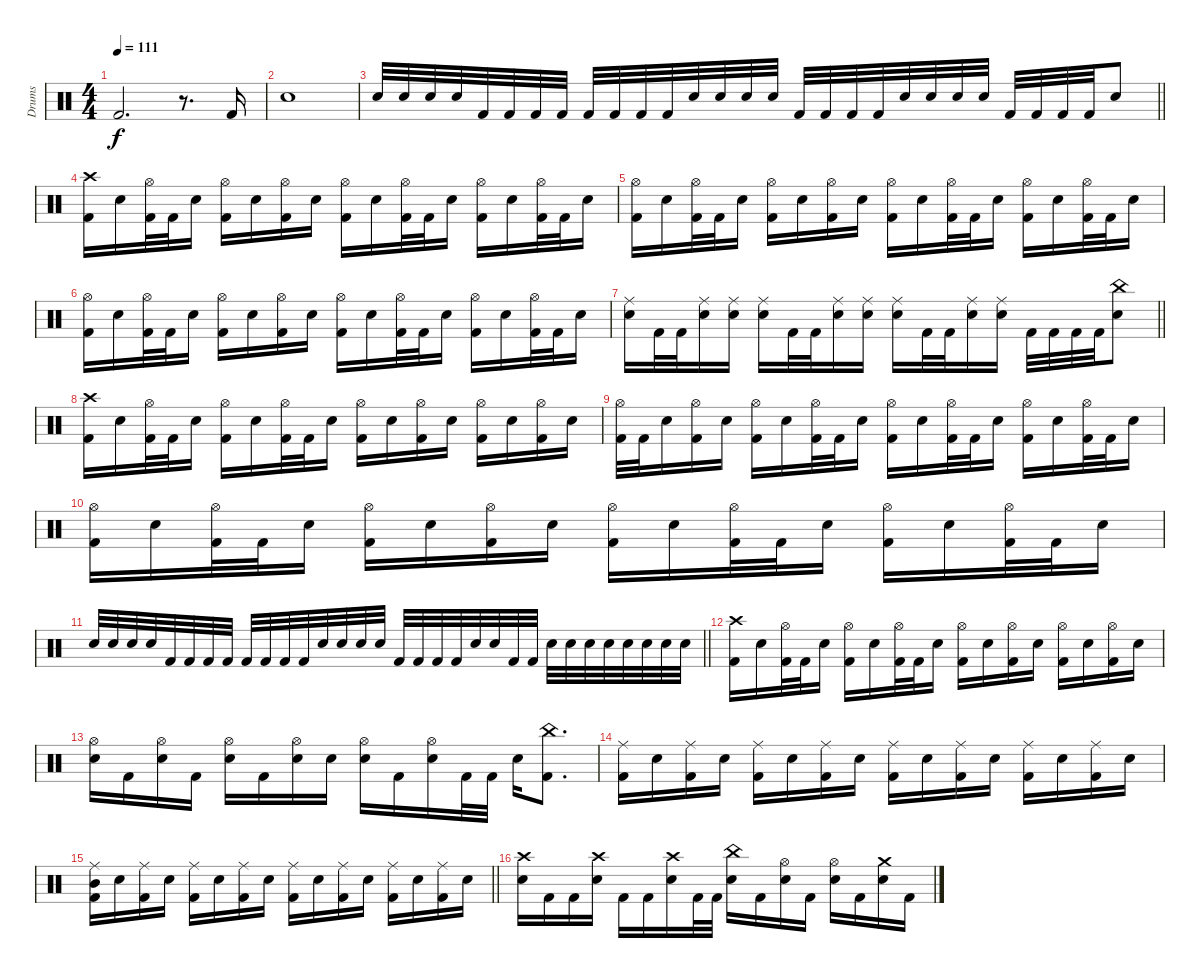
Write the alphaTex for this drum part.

\track ("Drums" "Drums") {instrument percussion}
\staff
\articulation defaults
\ts (4 4)
\tempo 111
\clef neutral
\ks c "Kick (hit) 2".2{d dy f}
r.8{d} "Kick (hit) 2".16 |
"Electric Snare (hit)".1 |
\barLineRight lightlight "Electric Snare (hit)".32 "Electric Snare (hit)".32 "Electric Snare (hit)".32 "Electric Snare (hit)".32 "Kick (hit) 2".32 "Kick (hit) 2".32 "Kick (hit) 2".32 "Kick (hit) 2".32 "Kick (hit) 2".32 "Kick (hit) 2".32 "Kick (hit) 2".32 "Kick (hit) 2".32 "Electric Snare (hit)".32 "Electric Snare (hit)".32 "Electric Snare (hit)".32 "Electric Snare (hit)".32 "Kick (hit) 2".32 "Kick (hit) 2".32 "Kick (hit) 2".32 "Kick (hit) 2".32 "Electric Snare (hit)".32 "Electric Snare (hit)".32 "Electric Snare (hit)".32 "Electric Snare (hit)".32 "Kick (hit) 2".32 "Kick (hit) 2".32 "Kick (hit) 2".32 "Kick (hit) 2".32 "Electric Snare (hit)".8
|
("Crash high (hit)" "Kick (hit) 2").16 "Electric Snare (hit)".16 ("Hi-Hat (open)" "Kick (hit) 2").32 "Kick (hit) 2".32 "Electric Snare (hit)".16 ("Hi-Hat (open)" "Kick (hit) 2").16 "Electric Snare (hit)".16 ("Hi-Hat (open)" "Kick (hit) 2").16 "Electric Snare (hit)".16 ("Hi-Hat (open)" "Kick (hit) 2").16 "Electric Snare (hit)".16 ("Hi-Hat (open)" "Kick (hit) 2").32 "Kick (hit) 2".32 "Electric Snare (hit)".16 ("Hi-Hat (open)" "Kick (hit) 2").16 "Electric Snare (hit)".16 ("Hi-Hat (open)" "Kick (hit) 2").32 "Kick (hit) 2".32 "Electric Snare (hit)".16 |
("Hi-Hat (open)" "Kick (hit) 2").16 "Electric Snare (hit)".16 ("Hi-Hat (open)" "Kick (hit) 2").32 "Kick (hit) 2".32 "Electric Snare (hit)".16 ("Hi-Hat (open)" "Kick (hit) 2").16 "Electric Snare (hit)".16 ("Hi-Hat (open)" "Kick (hit) 2").16 "Electric Snare (hit)".16 ("Hi-Hat (open)" "Kick (hit) 2").16 "Electric Snare (hit)".16 ("Hi-Hat (open)" "Kick (hit) 2").32 "Kick (hit) 2".32 "Electric Snare (hit)".16 ("Hi-Hat (open)" "Kick (hit) 2").16 "Electric Snare (hit)".16 ("Hi-Hat (open)" "Kick (hit) 2").32 "Kick (hit) 2".32 "Electric Snare (hit)".16 |
("Hi-Hat (open)" "Kick (hit) 2").16 "Electric Snare (hit)".16 ("Hi-Hat (open)" "Kick (hit) 2").32 "Kick (hit) 2".32 "Electric Snare (hit)".16 ("Hi-Hat (open)" "Kick (hit) 2").16 "Electric Snare (hit)".16 ("Hi-Hat (open)" "Kick (hit) 2").16 "Electric Snare (hit)".16 ("Hi-Hat (open)" "Kick (hit) 2").16 "Electric Snare (hit)".16 ("Hi-Hat (open)" "Kick (hit) 2").32 "Kick (hit) 2".32 "Electric Snare (hit)".16 ("Hi-Hat (open)" "Kick (hit) 2").16 "Electric Snare (hit)".16 ("Hi-Hat (open)" "Kick (hit) 2").32 "Kick (hit) 2".32 "Electric Snare (hit)".16 |
\barLineRight lightlight
("Ride (middle)" "Electric Snare (hit)").16 "Kick (hit) 2".32 "Kick (hit) 2".32 ("Ride (middle)" "Electric Snare (hit)").16 ("Ride (middle)" "Electric Snare (hit)").16 ("Ride (middle)" "Electric Snare (hit)").16 "Kick (hit) 2".32 "Kick (hit) 2".32 ("Ride (middle)" "Electric Snare (hit)").16 ("Ride (middle)" "Electric Snare (hit)").16 ("Ride (middle)" "Electric Snare (hit)").16 "Kick (hit) 2".32 "Kick (hit) 2".32 ("Ride (middle)" "Electric Snare (hit)").16 ("Ride (middle)" "Electric Snare (hit)").16 "Kick (hit) 2".32 "Kick (hit) 2".32 "Kick (hit) 2".32 "Kick (hit) 2".32 ("China (hit)" "Electric Snare (hit)").8 |
("Crash high (hit)" "Kick (hit) 2").16 "Electric Snare (hit)".16 ("Hi-Hat (open)" "Kick (hit) 2").32 "Kick (hit) 2".32 "Electric Snare (hit)".16 ("Hi-Hat (open)" "Kick (hit) 2").16 "Electric Snare (hit)".16 ("Hi-Hat (open)" "Kick (hit) 2").32 "Kick (hit) 2".32 "Electric Snare (hit)".16 ("Hi-Hat (open)" "Kick (hit) 2").16 "Electric Snare (hit)".16 ("Hi-Hat (open)" "Kick (hit) 2").16 "Electric Snare (hit)".16 ("Hi-Hat (open)" "Kick (hit) 2").16 "Electric Snare (hit)".16 ("Hi-Hat (open)" "Kick (hit) 2").16 "Electric Snare (hit)".16 |
("Hi-Hat (open)" "Kick (hit) 2").32 "Kick (hit) 2".32 "Electric Snare (hit)".16 ("Hi-Hat (open)" "Kick (hit) 2").16 "Electric Snare (hit)".16 ("Hi-Hat (open)" "Kick (hit) 2").16 "Electric Snare (hit)".16 ("Hi-Hat (open)" "Kick (hit) 2").32 "Kick (hit) 2".32 "Electric Snare (hit)".16 ("Hi-Hat (open)" "Kick (hit) 2").16 "Electric Snare (hit)".16 ("Hi-Hat (open)" "Kick (hit) 2").32 "Kick (hit) 2".32 "Electric Snare (hit)".16 ("Hi-Hat (open)" "Kick (hit) 2").16 "Electric Snare (hit)".16 ("Hi-Hat (open)" "Kick (hit) 2").32 "Kick (hit) 2".32 "Electric Snare (hit)".16 |
("Hi-Hat (open)" "Kick (hit) 2").16 "Electric Snare (hit)".16 ("Hi-Hat (open)" "Kick (hit) 2").32 "Kick (hit) 2".32 "Electric Snare (hit)".16 ("Hi-Hat (open)" "Kick (hit) 2").16 "Electric Snare (hit)".16 ("Hi-Hat (open)" "Kick (hit) 2").16 "Electric Snare (hit)".16 ("Hi-Hat (open)" "Kick (hit) 2").16 "Electric Snare (hit)".16 ("Hi-Hat (open)" "Kick (hit) 2").32 "Kick (hit) 2".32 "Electric Snare (hit)".16 ("Hi-Hat (open)" "Kick (hit) 2").16 "Electric Snare (hit)".16 ("Hi-Hat (open)" "Kick (hit) 2").32 "Kick (hit) 2".32 "Electric Snare (hit)".16 |
\barLineRight lightlight "Electric Snare (hit)".32 "Electric Snare (hit)".32 "Electric Snare (hit)".32 "Electric Snare (hit)".32 "Kick (hit) 2".32 "Kick (hit) 2".32 "Kick (hit) 2".32 "Kick (hit) 2".32 "Kick (hit) 2".32 "Kick (hit) 2".32 "Kick (hit) 2".32 "Kick (hit) 2".32 "Electric Snare (hit)".32 "Electric Snare (hit)".32 "Electric Snare (hit)".32 "Electric Snare (hit)".32 "Kick (hit) 2".32 "Kick (hit) 2".32 "Kick (hit) 2".32 "Kick (hit) 2".32 "Electric Snare (hit)".32 "Electric Snare (hit)".32 "Kick (hit) 2".32 "Kick (hit) 2".32 "Electric Snare (hit)".32 "Electric Snare (hit)".32 "Electric Snare (hit)".32 "Electric Snare (hit)".32 "Electric Snare (hit)".32 "Electric Snare (hit)".32 "Electric Snare (hit)".32 "Electric Snare (hit)".32
|
\section ("" "")
("Crash high (hit)" "Kick (hit) 2").16 "Electric Snare (hit)".16 ("Hi-Hat (open)" "Kick (hit) 2").32 "Kick (hit) 2".32 "Electric Snare (hit)".16 ("Hi-Hat (open)" "Kick (hit) 2").16 "Electric Snare (hit)".16 ("Hi-Hat (open)" "Kick (hit) 2").32 "Kick (hit) 2".32 "Electric Snare (hit)".16 ("Hi-Hat (open)" "Kick (hit) 2").16 "Electric Snare (hit)".16 ("Hi-Hat (open)" "Kick (hit) 2").16 "Electric Snare (hit)".16 ("Hi-Hat (open)" "Kick (hit) 2").16 "Electric Snare (hit)".16 ("Hi-Hat (open)" "Kick (hit) 2").16 "Electric Snare (hit)".16 |
("Hi-Hat (open)" "Electric Snare (hit)").16 "Kick (hit) 2".16 ("Hi-Hat (open)" "Electric Snare (hit)").16 "Kick (hit) 2".16 ("Hi-Hat (open)" "Electric Snare (hit)").16 "Kick (hit) 2".16 ("Hi-Hat (open)" "Electric Snare (hit)").16 "Electric Snare (hit)".16 ("Hi-Hat (open)" "Electric Snare (hit)").16 "Kick (hit) 2".16 ("Hi-Hat (open)" "Electric Snare (hit)").16 "Kick (hit) 2".32 "Kick (hit) 2".32 "Electric Snare (hit)".16 ("China (hit)" "Kick (hit) 2").8{d} |
("Ride (middle)" "Kick (hit) 2").16 "Electric Snare (hit)".16 ("Ride (middle)" "Kick (hit) 2").16 "Electric Snare (hit)".16 ("Ride (middle)" "Kick (hit) 2").16 "Electric Snare (hit)".16 ("Ride (middle)" "Kick (hit) 2").16 "Electric Snare (hit)".16 ("Ride (middle)" "Kick (hit) 2").16 "Electric Snare (hit)".16 ("Ride (middle)" "Kick (hit) 2").16 "Electric Snare (hit)".16 ("Ride (middle)" "Kick (hit) 2").16 "Electric Snare (hit)".16 ("Ride (middle)" "Kick (hit) 2").16 "Electric Snare (hit)".16 |
\barLineRight lightlight
("Ride (middle)" "Mid Tom (hit)" "Kick (hit) 2").16 "Electric Snare (hit)".16 ("Ride (middle)" "Kick (hit) 2").16 "Electric Snare (hit)".16 ("Ride (middle)" "Kick (hit) 2").16 "Electric Snare (hit)".16 ("Ride (middle)" "Kick (hit) 2").16 "Electric Snare (hit)".16 ("Ride (middle)" "Kick (hit) 2").16 "Electric Snare (hit)".16 ("Ride (middle)" "Kick (hit) 2").16 "Electric Snare (hit)".16 ("Ride (middle)" "Kick (hit) 2").16 "Electric Snare (hit)".16 ("Ride (middle)" "Kick (hit) 2").16 "Electric Snare (hit)".16 |
("Crash high (hit)" "Electric Snare (hit)").16 "Kick (hit) 2".16 "Kick (hit) 2".16 ("Crash high (hit)" "Electric Snare (hit)").16 "Kick (hit) 2".16 "Kick (hit) 2".16 ("Crash high (hit)" "Electric Snare (hit)").16 "Kick (hit) 2".32 "Kick (hit) 2".32 ("China (hit)" "Electric Snare (hit)").16 "Kick (hit) 2".16 ("Hi-Hat (open)" "Electric Snare (hit)").16 "Kick (hit) 2".16 ("Hi-Hat (open)" "Electric Snare (hit)").16 "Kick (hit) 2".16 ("Crash medium (hit)" "Electric Snare (hit)").16 "Kick (hit) 2".16
